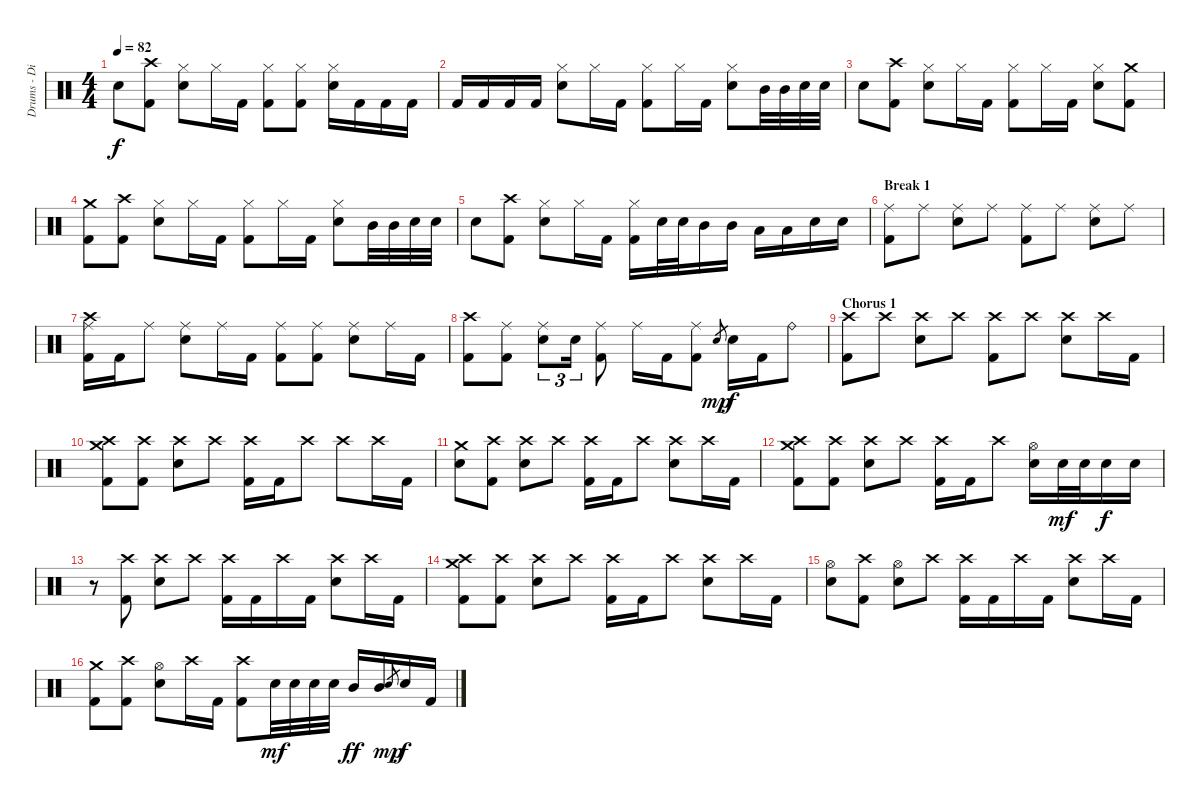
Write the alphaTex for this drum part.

\track ("Drums - Dino Campanella" "Drums - Di") {instrument percussion}
\staff {score}
\articulation defaults
\ts (4 4)
\tempo 82
\clef neutral
\ks c "Electric Snare (hit)".8{dy f}
("Crash high (hit)" "Kick (hit) 2").8 ("Hi-Hat (closed)" "Electric Snare (hit)").8 "Hi-Hat (closed)".16 "Kick (hit) 2".16 ("Hi-Hat (closed)" "Kick (hit) 2").8 ("Hi-Hat (closed)" "Kick (hit) 2").8 ("Hi-Hat (closed)" "Electric Snare (hit)").16 "Kick (hit) 2".16 "Kick (hit) 2".16 "Kick (hit) 2".16 |
"Kick (hit) 2".16 "Kick (hit) 2".16 "Kick (hit) 2".16 "Kick (hit) 2".16 ("Hi-Hat (closed)" "Electric Snare (hit)").8 "Hi-Hat (closed)".16 "Kick (hit) 2".16 ("Hi-Hat (closed)" "Kick (hit) 2").8 "Hi-Hat (closed)".16 "Kick (hit) 2".16 ("Hi-Hat (closed)" "Electric Snare (hit)").8 "Mid Tom (hit)".32 "Mid Tom (hit)".32 "Electric Snare (hit)".32 "Electric Snare (hit)".32 |
"Electric Snare (hit)".8 ("Crash high (hit)" "Kick (hit) 2").8 ("Hi-Hat (closed)" "Electric Snare (hit)").8 "Hi-Hat (closed)".16 "Kick (hit) 2".16 ("Hi-Hat (closed)" "Kick (hit) 2").8 "Hi-Hat (closed)".16 "Kick (hit) 2".16 ("Hi-Hat (closed)" "Electric Snare (hit)").8 ("Crash medium (hit)" "Kick (hit) 2").8 |
("Crash medium (hit)" "Kick (hit) 2").8 ("Crash high (hit)" "Kick (hit) 2").8 ("Hi-Hat (closed)" "Electric Snare (hit)").8 "Hi-Hat (closed)".16 "Kick (hit) 2".16 ("Hi-Hat (closed)" "Kick (hit) 2").8 "Hi-Hat (closed)".16 "Kick (hit) 2".16 ("Hi-Hat (closed)" "Electric Snare (hit)").8 "Mid Tom (hit)".32 "Mid Tom (hit)".32 "Electric Snare (hit)".32 "Electric Snare (hit)".32 |
"Electric Snare (hit)".8 ("Crash high (hit)" "Kick (hit) 2").8 ("Hi-Hat (closed)" "Electric Snare (hit)").8 "Hi-Hat (closed)".16 "Kick (hit) 2".16 ("Hi-Hat (closed)" "Kick (hit) 2").16 "Electric Snare (hit)".32 "Electric Snare (hit)".32 "Mid Tom (hit)".16 "Mid Tom (hit)".16 "Low Tom (hit)".16 "Low Tom (hit)".16 "Electric Snare (hit)".16 "Electric Snare (hit)".16 |
\section ("" "Break 1")
("Ride (middle)" "Kick (hit) 2").8 "Ride (middle)".8 ("Ride (middle)" "Electric Snare (hit)").8 "Ride (middle)".8 ("Ride (middle)" "Kick (hit) 2").8 "Ride (middle)".8 ("Ride (middle)" "Electric Snare (hit)").8 "Ride (middle)".8 |
("Crash high (hit)" "Ride (middle)" "Kick (hit) 2").16 "Kick (hit) 2".16 "Ride (middle)".8 ("Ride (middle)" "Electric Snare (hit)").8 "Ride (middle)".16 "Kick (hit) 2".16 ("Ride (middle)" "Kick (hit) 2").8 ("Ride (middle)" "Kick (hit) 2").8 ("Ride (middle)" "Electric Snare (hit)").8 "Ride (middle)".16 "Kick (hit) 2".16 |
("Crash high (hit)" "Kick (hit) 2").8 ("Ride (middle)" "Kick (hit) 2").8 ("Ride (middle)" "Electric Snare (hit)").8{tu (3 2)} "Electric Snare (hit)".16{tu (3 2)} ("Ride (middle)" "Kick (hit) 2").8 "Ride (middle)".16 "Kick (hit) 2".16 ("Ride (middle)" "Kick (hit) 2").8 "Electric Snare (hit)".8{gr dy mp} "Electric Snare (hit)".16{dy f} "Kick (hit) 2".16 "Ride (bell)".8 |
\section ("" "Chorus 1")
("Crash high (hit)" "Kick (hit) 2").8 "Crash high (hit)".8 ("Crash high (hit)" "Electric Snare (hit)").8 "Crash high (hit)".8 ("Crash high (hit)" "Kick (hit) 2").8 "Crash high (hit)".8 ("Crash high (hit)" "Electric Snare (hit)").8 "Crash high (hit)".16 "Kick (hit) 2".16 |
("Crash high (hit)" "Crash medium (hit)" "Kick (hit) 2").8 ("Crash high (hit)" "Kick (hit) 2").8 ("Crash high (hit)" "Electric Snare (hit)").8 "Crash high (hit)".8 ("Crash high (hit)" "Kick (hit) 2").16 "Kick (hit) 2".16 "Crash high (hit)".8 "Crash high (hit)".8 "Crash high (hit)".16 "Kick (hit) 2".16 |
("Crash medium (hit)" "Electric Snare (hit)").8 ("Crash high (hit)" "Kick (hit) 2").8 ("Crash high (hit)" "Electric Snare (hit)").8 "Crash high (hit)".8 ("Crash high (hit)" "Kick (hit) 2").16 "Kick (hit) 2".16 "Crash high (hit)".8 ("Crash high (hit)" "Electric Snare (hit)").8 "Crash high (hit)".16 "Kick (hit) 2".16 |
("Crash high (hit)" "Crash medium (hit)" "Kick (hit) 2").8 ("Crash high (hit)" "Kick (hit) 2").8 ("Crash high (hit)" "Electric Snare (hit)").8 "Crash high (hit)".8 ("Crash high (hit)" "Kick (hit) 2").16 "Kick (hit) 2".16 "Crash high (hit)".8 ("Hi-Hat (open)" "Electric Snare (hit)").16 "Electric Snare (hit)".32{dy mf} "Electric Snare (hit)".32 "Electric Snare (hit)".16{dy f} "Electric Snare (hit)".16 |
r.8 ("Crash high (hit)" "Kick (hit) 2").8 ("Crash high (hit)" "Electric Snare (hit)").8 "Crash high (hit)".8 ("Crash high (hit)" "Kick (hit) 2").16 "Kick (hit) 2".16 "Crash high (hit)".16 "Kick (hit) 2".16 ("Crash high (hit)" "Electric Snare (hit)").8 "Crash high (hit)".16 "Kick (hit) 2".16 |
("Crash high (hit)" "Crash medium (hit)" "Kick (hit) 2").8 ("Crash high (hit)" "Kick (hit) 2").8 ("Crash high (hit)" "Electric Snare (hit)").8 "Crash high (hit)".8 ("Crash high (hit)" "Kick (hit) 2").16 "Kick (hit) 2".16 "Crash high (hit)".8 ("Crash high (hit)" "Electric Snare (hit)").8 "Crash high (hit)".16 "Kick (hit) 2".16 |
("Hi-Hat (open)" "Electric Snare (hit)").8 ("Crash high (hit)" "Kick (hit) 2").8 ("Hi-Hat (open)" "Electric Snare (hit)").8 "Crash high (hit)".8 ("Crash high (hit)" "Kick (hit) 2").16 "Kick (hit) 2".16 "Crash high (hit)".16 "Kick (hit) 2".16 ("Crash high (hit)" "Electric Snare (hit)").8 "Crash high (hit)".16 "Kick (hit) 2".16 |
("Crash medium (hit)" "Kick (hit) 2").8 ("Crash high (hit)" "Kick (hit) 2").8 ("Hi-Hat (open)" "Electric Snare (hit)").8 "Crash high (hit)".16 "Kick (hit) 2".16 ("Crash high (hit)" "Kick (hit) 2").8 "Electric Snare (hit)".32{dy mf} "Electric Snare (hit)".32 "Electric Snare (hit)".32 "Electric Snare (hit)".32 "Mid Tom (hit)".16{dy ff} "Mid Tom (hit)".16 "Electric Snare (hit)".8{gr dy mp} "Electric Snare (hit)".16{dy f} "Kick (hit) 2".16
